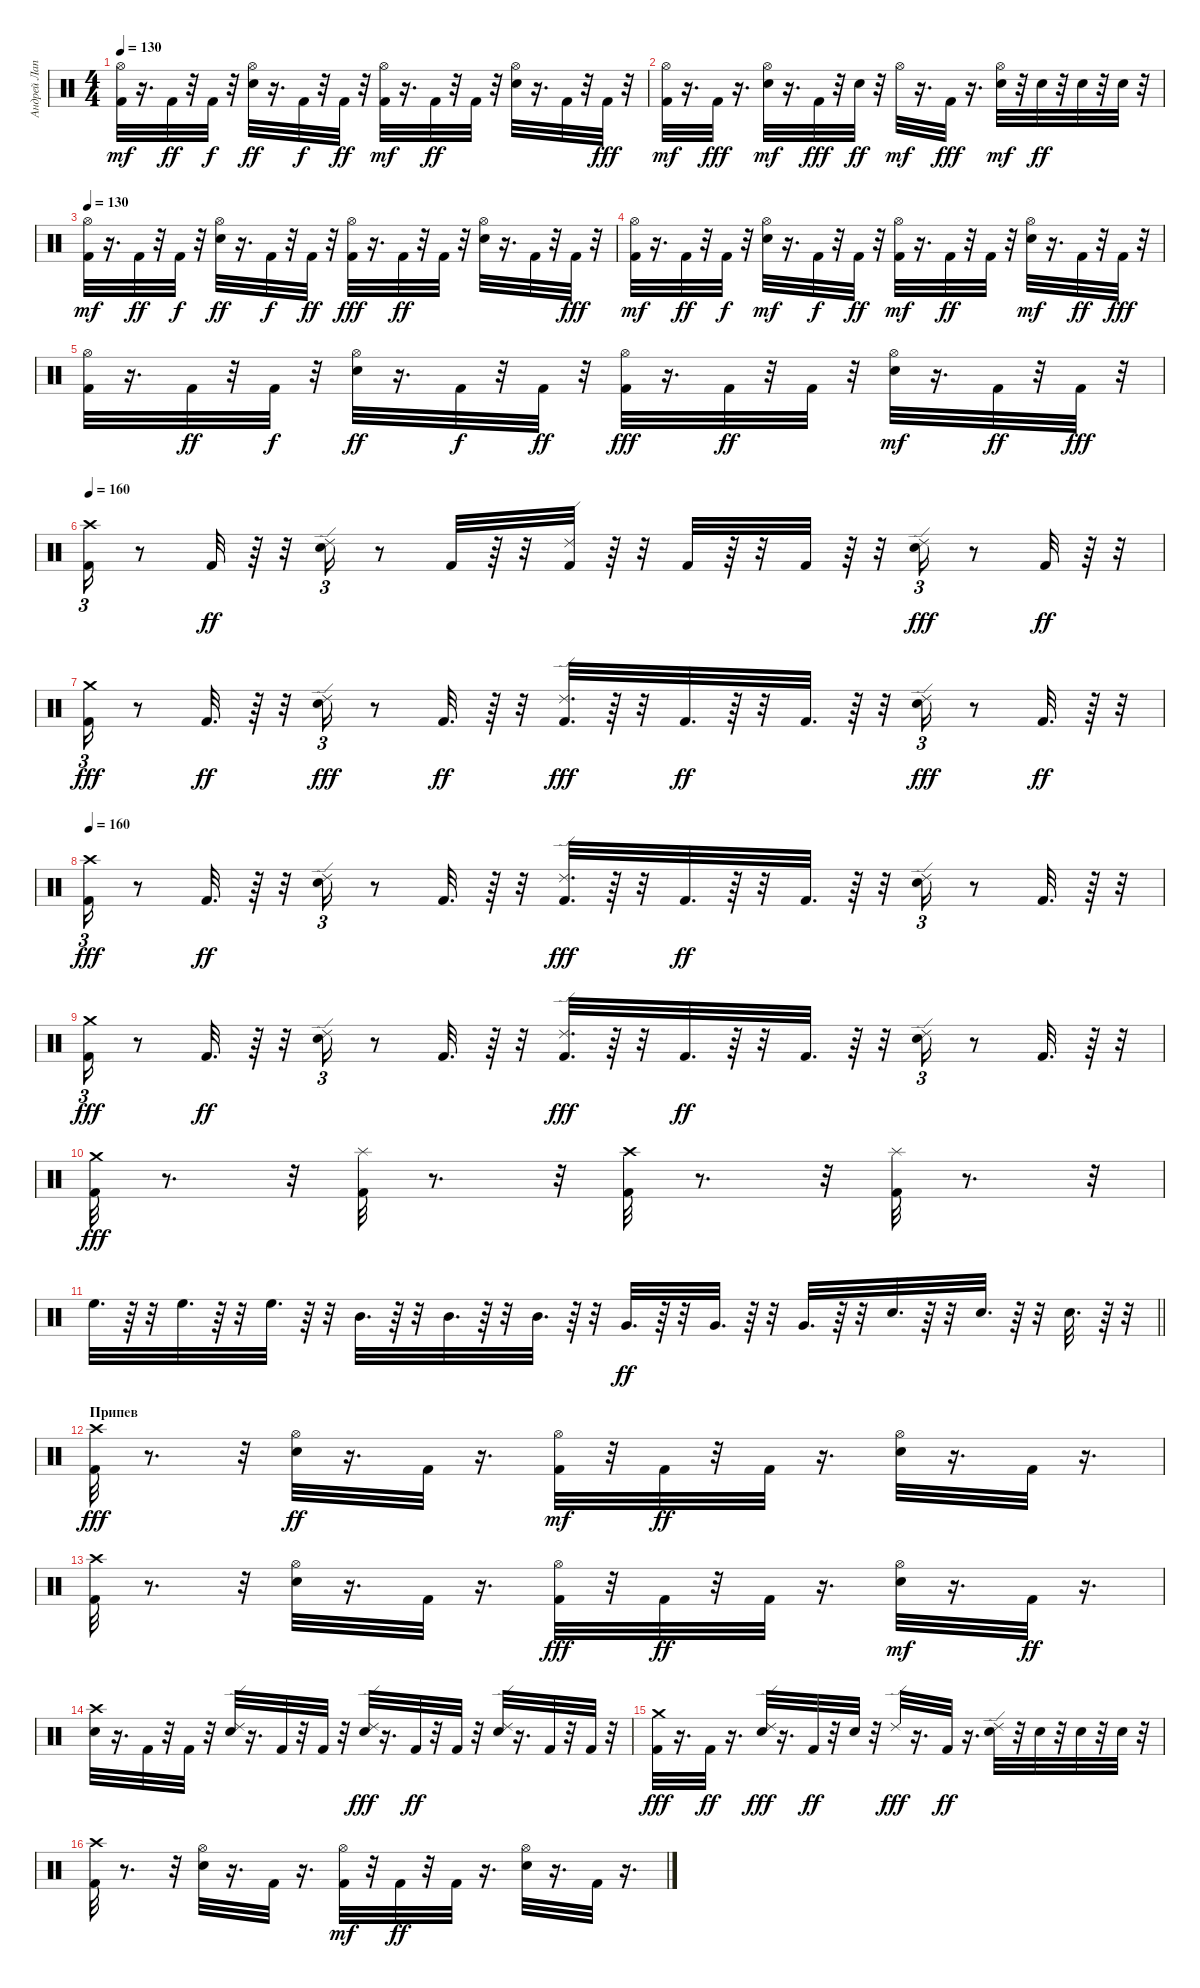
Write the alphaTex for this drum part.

\track ("Андрей Лаптев" "Андрей Лап") {instrument percussion}
\staff {score}
\articulation defaults
\ts (4 4)
\tempo 130
\clef neutral
\ks c
("Kick (hit) 2" "Hi-Hat (open)").32{dy mf} r.16{d} "Kick (hit) 2".32{dy ff} r.32 "Kick (hit) 2".32{dy f} r.32 ("Hi-Hat (open)" "Electric Snare (hit)").32{dy ff} r.16{d} "Kick (hit) 2".32{dy f} r.32 "Kick (hit) 2".32{dy ff} r.32 ("Kick (hit) 2" "Hi-Hat (open)").32{dy mf} r.16{d} "Kick (hit) 2".32{dy ff} r.32 "Kick (hit) 2".32 r.32 ("Hi-Hat (open)" "Electric Snare (hit)").32 r.16{d} "Kick (hit) 2".32 r.32 "Kick (hit) 2".32{dy fff} r.32 |
("Kick (hit) 2" "Hi-Hat (open)").32{dy mf} r.16{d} "Kick (hit) 2".32{dy fff} r.16{d} ("Electric Snare (hit)" "Hi-Hat (open)").32{dy mf} r.16{d} "Kick (hit) 2".32{dy fff} r.32 "Electric Snare (hit)".32{dy ff} r.32 "Hi-Hat (open)".32{dy mf} r.16{d} "Kick (hit) 2".32{dy fff} r.16{d} ("Electric Snare (hit)" "Hi-Hat (open)").32{dy mf} r.32 "Electric Snare (hit)".32{dy ff} r.32 "Electric Snare (hit)".32 r.32 "Electric Snare (hit)".32 r.32 |
\tempo 130
("Kick (hit) 2" "Hi-Hat (open)").32{dy mf} r.16{d} "Kick (hit) 2".32{dy ff} r.32 "Kick (hit) 2".32{dy f} r.32 ("Hi-Hat (open)" "Electric Snare (hit)").32{dy ff} r.16{d} "Kick (hit) 2".32{dy f} r.32 "Kick (hit) 2".32{dy ff} r.32 ("Hi-Hat (open)" "Kick (hit) 2").32{dy fff} r.16{d} "Kick (hit) 2".32{dy ff} r.32 "Kick (hit) 2".32 r.32 ("Hi-Hat (open)" "Electric Snare (hit)").32 r.16{d} "Kick (hit) 2".32 r.32 "Kick (hit) 2".32{dy fff} r.32 |
("Kick (hit) 2" "Hi-Hat (open)").32{dy mf} r.16{d} "Kick (hit) 2".32{dy ff} r.32 "Kick (hit) 2".32{dy f} r.32 ("Electric Snare (hit)" "Hi-Hat (open)").32{dy mf} r.16{d} "Kick (hit) 2".32{dy f} r.32 "Kick (hit) 2".32{dy ff} r.32 ("Kick (hit) 2" "Hi-Hat (open)").32{dy mf} r.16{d} "Kick (hit) 2".32{dy ff} r.32 "Kick (hit) 2".32 r.32 ("Electric Snare (hit)" "Hi-Hat (open)").32{dy mf} r.16{d} "Kick (hit) 2".32{dy ff} r.32 "Kick (hit) 2".32{dy fff} r.32 |
("Hi-Hat (open)" "Kick (hit) 2").32 r.16{d} "Kick (hit) 2".32{dy ff} r.32 "Kick (hit) 2".32{dy f} r.32 ("Hi-Hat (open)" "Electric Snare (hit)").32{dy ff} r.16{d} "Kick (hit) 2".32{dy f} r.32 "Kick (hit) 2".32{dy ff} r.32 ("Hi-Hat (open)" "Kick (hit) 2").32{dy fff} r.16{d} "Kick (hit) 2".32{dy ff} r.32 "Kick (hit) 2".32 r.32 ("Electric Snare (hit)" "Hi-Hat (open)").32{dy mf} r.16{d} "Kick (hit) 2".32{dy ff} r.32 "Kick (hit) 2".32{dy fff} r.32 |
\tempo 160
("Crash high (hit)" "Kick (hit) 2").16{tu (3 2)} r.8 "Kick (hit) 2".32{dy ff} r.64 r.32 ("Ride (edge) 2" "Electric Snare (hit)").16{tu (3 2)} r.8 "Kick (hit) 2".32 r.64 r.32 ("Ride (edge) 2" "Kick (hit) 2").32 r.64 r.32 "Kick (hit) 2".32 r.64 r.32 "Kick (hit) 2".32 r.64 r.32 ("Electric Snare (hit)" "Ride (edge) 2").16{tu (3 2) dy fff} r.8 "Kick (hit) 2".32{dy ff} r.64 r.32 |
("Kick (hit) 2" "Crash medium (hit)").16{tu (3 2) dy fff} r.8 "Kick (hit) 2".32{d dy ff} r.64 r.32 ("Electric Snare (hit)" "Ride (edge) 2").16{tu (3 2) dy fff} r.8 "Kick (hit) 2".32{d dy ff} r.64 r.32 ("Kick (hit) 2" "Ride (edge) 2").32{d dy fff} r.64 r.32 "Kick (hit) 2".32{d dy ff} r.64 r.32 "Kick (hit) 2".32{d} r.64 r.32 ("Electric Snare (hit)" "Ride (edge) 2").16{tu (3 2) dy fff} r.8 "Kick (hit) 2".32{d dy ff} r.64 r.32 |
\tempo 160
("Crash high (hit)" "Kick (hit) 2").16{tu (3 2) dy fff} r.8 "Kick (hit) 2".32{d dy ff} r.64 r.32 ("Ride (edge) 2" "Electric Snare (hit)").16{tu (3 2)} r.8 "Kick (hit) 2".32{d} r.64 r.32 ("Ride (edge) 2" "Kick (hit) 2").32{d dy fff} r.64 r.32 "Kick (hit) 2".32{d dy ff} r.64 r.32 "Kick (hit) 2".32{d} r.64 r.32 ("Ride (edge) 2" "Electric Snare (hit)").16{tu (3 2)} r.8 "Kick (hit) 2".32{d} r.64 r.32 |
("Crash medium (hit)" "Kick (hit) 2").16{tu (3 2) dy fff} r.8 "Kick (hit) 2".32{d dy ff} r.64 r.32 ("Ride (edge) 2" "Electric Snare (hit)").16{tu (3 2)} r.8 "Kick (hit) 2".32{d} r.64 r.32 ("Ride (edge) 2" "Kick (hit) 2").32{d dy fff} r.64 r.32 "Kick (hit) 2".32{d dy ff} r.64 r.32 "Kick (hit) 2".32{d} r.64 r.32 ("Ride (edge) 2" "Electric Snare (hit)").16{tu (3 2)} r.8 "Kick (hit) 2".32{d} r.64 r.32 |
("Crash medium (hit)" "Kick (hit) 2").32{dy fff} r.8{d} r.32 ("Kick (hit) 2" "Splash (hit)").32 r.8{d} r.32 ("Kick (hit) 2" "Crash high (hit)").32 r.8{d} r.32 ("Splash (hit)" "Kick (hit) 2").32 r.8{d} r.32 |
\barLineRight lightlight "High Floor Tom (hit)".32{d}
r.64 r.32 "High Floor Tom (hit)".32{d} r.64 r.32 "High Floor Tom (hit)".32{d} r.64 r.32 "Mid Tom (hit)".32{d} r.64 r.32 "Mid Tom (hit)".32{d} r.64 r.32 "Mid Tom (hit)".32{d} r.64 r.32 "Very Low Tom (hit)".32{d dy ff} r.64 r.32 "Very Low Tom (hit)".32{d} r.64 r.32 "Very Low Tom (hit)".32{d} r.64 r.32 "Electric Snare (hit)".32{d} r.64 r.32 "Electric Snare (hit)".32{d} r.64 r.32 "Electric Snare (hit)".32{d} r.64 r.32 |
\section ("" "Припев")
("Kick (hit) 2" "Crash high (hit)").32{dy fff} r.8{d} r.32 ("Hi-Hat (open)" "Electric Snare (hit)").32{dy ff} r.16{d} "Kick (hit) 2".32 r.16{d} ("Kick (hit) 2" "Hi-Hat (open)").32{dy mf} r.32 "Kick (hit) 2".32{dy ff} r.32 "Kick (hit) 2".32 r.16{d} ("Hi-Hat (open)" "Electric Snare (hit)").32 r.16{d} "Kick (hit) 2".32 r.16{d} |
("Kick (hit) 2" "Crash high (hit)").32 r.8{d} r.32 ("Hi-Hat (open)" "Electric Snare (hit)").32 r.16{d} "Kick (hit) 2".32 r.16{d} ("Hi-Hat (open)" "Kick (hit) 2").32{dy fff} r.32 "Kick (hit) 2".32{dy ff} r.32 "Kick (hit) 2".32 r.16{d} ("Electric Snare (hit)" "Hi-Hat (open)").32{dy mf} r.16{d} "Kick (hit) 2".32{dy ff} r.16{d} |
("Crash high (hit)" "Electric Snare (hit)").32 r.16{d} "Kick (hit) 2".32 r.32 "Kick (hit) 2".32 r.32 ("Ride (edge) 2" "Electric Snare (hit)").32 r.16{d} "Kick (hit) 2".32 r.32 "Kick (hit) 2".32 r.32 ("Electric Snare (hit)" "Ride (edge) 2").32{dy fff} r.16{d} "Kick (hit) 2".32{dy ff} r.32 "Kick (hit) 2".32 r.32 ("Ride (edge) 2" "Electric Snare (hit)").32 r.16{d} "Kick (hit) 2".32 r.32 "Kick (hit) 2".32 r.32 |
("Crash medium (hit)" "Kick (hit) 2").32{dy fff} r.16{d} "Kick (hit) 2".32{dy ff} r.16{d} ("Electric Snare (hit)" "Ride (edge) 2").32{dy fff} r.16{d} "Kick (hit) 2".32{dy ff} r.32 "Electric Snare (hit)".32 r.32 "Ride (edge) 2".32{dy fff} r.16{d} "Kick (hit) 2".32{dy ff} r.16{d} ("Ride (edge) 2" "Electric Snare (hit)").32 r.32 "Electric Snare (hit)".32 r.32 "Electric Snare (hit)".32 r.32 "Electric Snare (hit)".32 r.32 |
("Crash high (hit)" "Kick (hit) 2").32 r.8{d} r.32 ("Hi-Hat (open)" "Electric Snare (hit)").32 r.16{d} "Kick (hit) 2".32 r.16{d} ("Kick (hit) 2" "Hi-Hat (open)").32{dy mf} r.32 "Kick (hit) 2".32{dy ff} r.32 "Kick (hit) 2".32 r.16{d} ("Hi-Hat (open)" "Electric Snare (hit)").32 r.16{d} "Kick (hit) 2".32 r.16{d}
